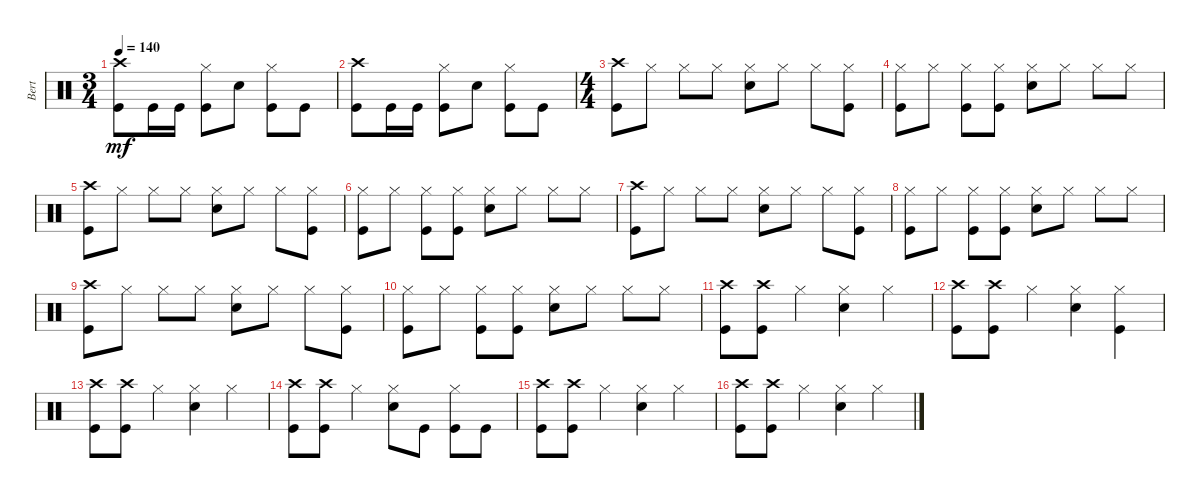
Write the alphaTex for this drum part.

\track ("Bert" "Bert") {instrument percussion}
\staff {score}
\articulation defaults
\ts (3 4)
\tempo 140
\clef neutral
\ks c
("Crash high (hit)" "Kick (hit)").8{dy mf} "Kick (hit)".16 "Kick (hit)".16 ("Kick (hit)" "Hi-Hat (closed)").8 "Electric Snare (hit)".8 ("Kick (hit)" "Hi-Hat (closed)").8 "Kick (hit)".8 |
("Kick (hit)" "Crash high (hit)").8 "Kick (hit)".16 "Kick (hit)".16 ("Kick (hit)" "Hi-Hat (closed)").8 "Electric Snare (hit)".8 ("Kick (hit)" "Hi-Hat (closed)").8 "Kick (hit)".8 |
\ts (4 4)
("Crash high (hit)" "Kick (hit)").8 "Hi-Hat (closed)".8 "Hi-Hat (closed)".8 "Hi-Hat (closed)".8 ("Electric Snare (hit)" "Hi-Hat (closed)").8 "Hi-Hat (closed)".8 "Hi-Hat (closed)".8 ("Kick (hit)" "Hi-Hat (closed)").8 |
("Hi-Hat (closed)" "Kick (hit)").8 "Hi-Hat (closed)".8 ("Kick (hit)" "Hi-Hat (closed)").8 ("Hi-Hat (closed)" "Kick (hit)").8 ("Electric Snare (hit)" "Hi-Hat (closed)").8 "Hi-Hat (closed)".8 "Hi-Hat (closed)".8 "Hi-Hat (closed)".8 |
("Crash high (hit)" "Kick (hit)").8 "Hi-Hat (closed)".8 "Hi-Hat (closed)".8 "Hi-Hat (closed)".8 ("Electric Snare (hit)" "Hi-Hat (closed)").8 "Hi-Hat (closed)".8 "Hi-Hat (closed)".8 ("Kick (hit)" "Hi-Hat (closed)").8 |
("Kick (hit)" "Hi-Hat (closed)").8 "Hi-Hat (closed)".8 ("Kick (hit)" "Hi-Hat (closed)").8 ("Kick (hit)" "Hi-Hat (closed)").8 ("Electric Snare (hit)" "Hi-Hat (closed)").8 "Hi-Hat (closed)".8 "Hi-Hat (closed)".8 "Hi-Hat (closed)".8 |
("Crash high (hit)" "Kick (hit)").8 "Hi-Hat (closed)".8 "Hi-Hat (closed)".8 "Hi-Hat (closed)".8 ("Hi-Hat (closed)" "Electric Snare (hit)").8 "Hi-Hat (closed)".8 "Hi-Hat (closed)".8 ("Kick (hit)" "Hi-Hat (closed)").8 |
("Kick (hit)" "Hi-Hat (closed)").8 "Hi-Hat (closed)".8 ("Kick (hit)" "Hi-Hat (closed)").8 ("Kick (hit)" "Hi-Hat (closed)").8 ("Electric Snare (hit)" "Hi-Hat (closed)").8 "Hi-Hat (closed)".8 "Hi-Hat (closed)".8 "Hi-Hat (closed)".8 |
("Crash high (hit)" "Kick (hit)").8 "Hi-Hat (closed)".8 "Hi-Hat (closed)".8 "Hi-Hat (closed)".8 ("Hi-Hat (closed)" "Electric Snare (hit)").8 "Hi-Hat (closed)".8 "Hi-Hat (closed)".8 ("Kick (hit)" "Hi-Hat (closed)").8 |
("Kick (hit)" "Hi-Hat (closed)").8 "Hi-Hat (closed)".8 ("Kick (hit)" "Hi-Hat (closed)").8 ("Kick (hit)" "Hi-Hat (closed)").8 ("Electric Snare (hit)" "Hi-Hat (closed)").8 "Hi-Hat (closed)".8 "Hi-Hat (closed)".8 "Hi-Hat (closed)".8 |
("Kick (hit)" "Crash high (hit)").8 ("Kick (hit)" "Crash high (hit)").8 "Hi-Hat (closed)".4 ("Hi-Hat (closed)" "Electric Snare (hit)").4 "Hi-Hat (closed)".4 |
("Crash high (hit)" "Kick (hit)").8 ("Crash high (hit)" "Kick (hit)").8 "Hi-Hat (closed)".4 ("Hi-Hat (closed)" "Electric Snare (hit)").4 ("Kick (hit)" "Hi-Hat (closed)").4 |
("Kick (hit)" "Crash high (hit)").8 ("Kick (hit)" "Crash high (hit)").8 "Hi-Hat (closed)".4 ("Hi-Hat (closed)" "Electric Snare (hit)").4 "Hi-Hat (closed)".4 |
("Crash high (hit)" "Kick (hit)").8 ("Kick (hit)" "Crash high (hit)").8 "Hi-Hat (closed)".4 ("Electric Snare (hit)" "Hi-Hat (closed)").8 "Kick (hit)".8 ("Kick (hit)" "Hi-Hat (closed)").8 "Kick (hit)".8 |
("Kick (hit)" "Crash high (hit)").8 ("Crash high (hit)" "Kick (hit)").8 "Hi-Hat (closed)".4 ("Electric Snare (hit)" "Hi-Hat (closed)").4 "Hi-Hat (closed)".4 |
("Crash high (hit)" "Kick (hit)").8 ("Crash high (hit)" "Kick (hit)").8 "Hi-Hat (closed)".4 ("Electric Snare (hit)" "Hi-Hat (closed)").4 "Hi-Hat (closed)".4
